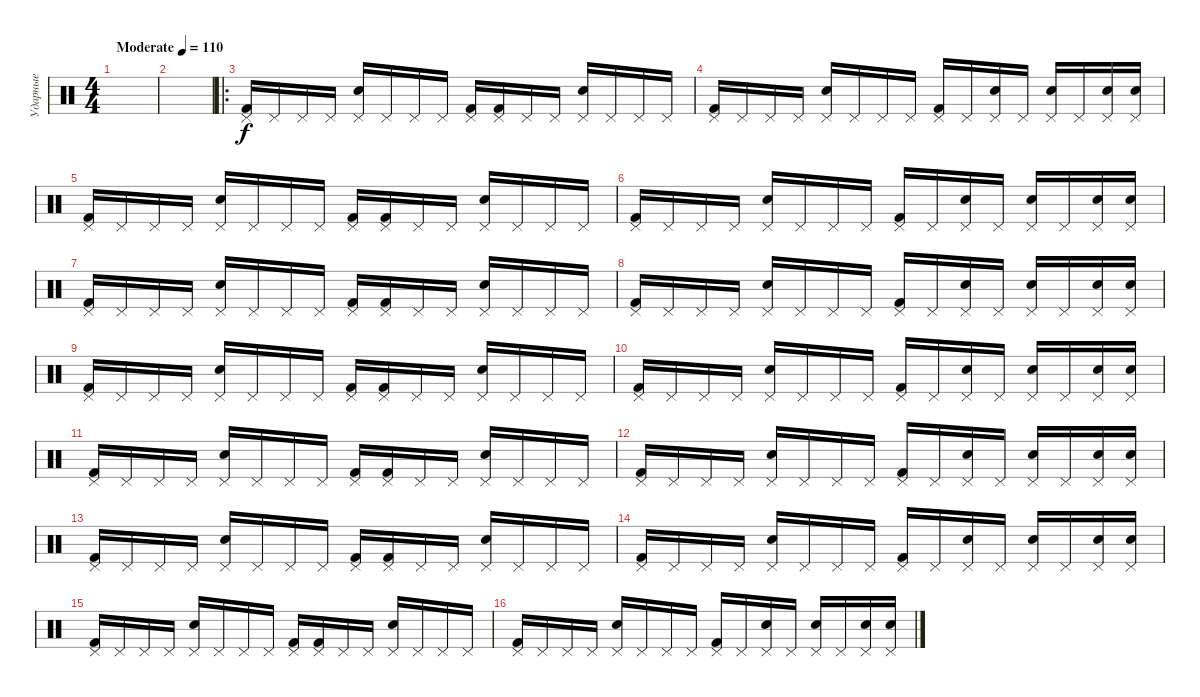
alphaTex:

\track ("Ударные" "Ударные") {instrument percussion}
\staff {score}
\articulation defaults
\ts (4 4)
\tempo (110 "Moderate")
\clef neutral
\ks c
|
|
\ro
("Pedal Hi-Hat (hit)" "Kick (hit) 2").16 "Pedal Hi-Hat (hit)".16 "Pedal Hi-Hat (hit)".16 "Pedal Hi-Hat (hit)".16 ("Pedal Hi-Hat (hit)" "Electric Snare (hit)").16 "Pedal Hi-Hat (hit)".16 "Pedal Hi-Hat (hit)".16 "Pedal Hi-Hat (hit)".16 ("Pedal Hi-Hat (hit)" "Kick (hit) 2").16 ("Pedal Hi-Hat (hit)" "Kick (hit) 2").16 "Pedal Hi-Hat (hit)".16 "Pedal Hi-Hat (hit)".16 ("Pedal Hi-Hat (hit)" "Electric Snare (hit)").16 "Pedal Hi-Hat (hit)".16 "Pedal Hi-Hat (hit)".16 "Pedal Hi-Hat (hit)".16 |
("Pedal Hi-Hat (hit)" "Kick (hit) 2").16 "Pedal Hi-Hat (hit)".16 "Pedal Hi-Hat (hit)".16 "Pedal Hi-Hat (hit)".16 ("Pedal Hi-Hat (hit)" "Electric Snare (hit)").16 "Pedal Hi-Hat (hit)".16 "Pedal Hi-Hat (hit)".16 "Pedal Hi-Hat (hit)".16 ("Pedal Hi-Hat (hit)" "Kick (hit) 2").16 "Pedal Hi-Hat (hit)".16 ("Pedal Hi-Hat (hit)" "Electric Snare (hit)").16 "Pedal Hi-Hat (hit)".16 ("Pedal Hi-Hat (hit)" "Electric Snare (hit)").16 "Pedal Hi-Hat (hit)".16 ("Pedal Hi-Hat (hit)" "Electric Snare (hit)").16 ("Pedal Hi-Hat (hit)" "Electric Snare (hit)").16 |
("Pedal Hi-Hat (hit)" "Kick (hit) 2").16 "Pedal Hi-Hat (hit)".16 "Pedal Hi-Hat (hit)".16 "Pedal Hi-Hat (hit)".16 ("Pedal Hi-Hat (hit)" "Electric Snare (hit)").16 "Pedal Hi-Hat (hit)".16 "Pedal Hi-Hat (hit)".16 "Pedal Hi-Hat (hit)".16 ("Pedal Hi-Hat (hit)" "Kick (hit) 2").16 ("Pedal Hi-Hat (hit)" "Kick (hit) 2").16 "Pedal Hi-Hat (hit)".16 "Pedal Hi-Hat (hit)".16 ("Pedal Hi-Hat (hit)" "Electric Snare (hit)").16 "Pedal Hi-Hat (hit)".16 "Pedal Hi-Hat (hit)".16 "Pedal Hi-Hat (hit)".16 |
("Pedal Hi-Hat (hit)" "Kick (hit) 2").16 "Pedal Hi-Hat (hit)".16 "Pedal Hi-Hat (hit)".16 "Pedal Hi-Hat (hit)".16 ("Pedal Hi-Hat (hit)" "Electric Snare (hit)").16 "Pedal Hi-Hat (hit)".16 "Pedal Hi-Hat (hit)".16 "Pedal Hi-Hat (hit)".16 ("Pedal Hi-Hat (hit)" "Kick (hit) 2").16 "Pedal Hi-Hat (hit)".16 ("Pedal Hi-Hat (hit)" "Electric Snare (hit)").16 "Pedal Hi-Hat (hit)".16 ("Pedal Hi-Hat (hit)" "Electric Snare (hit)").16 "Pedal Hi-Hat (hit)".16 ("Pedal Hi-Hat (hit)" "Electric Snare (hit)").16 ("Pedal Hi-Hat (hit)" "Electric Snare (hit)").16 |
("Pedal Hi-Hat (hit)" "Kick (hit) 2").16 "Pedal Hi-Hat (hit)".16 "Pedal Hi-Hat (hit)".16 "Pedal Hi-Hat (hit)".16 ("Pedal Hi-Hat (hit)" "Electric Snare (hit)").16 "Pedal Hi-Hat (hit)".16 "Pedal Hi-Hat (hit)".16 "Pedal Hi-Hat (hit)".16 ("Pedal Hi-Hat (hit)" "Kick (hit) 2").16 ("Pedal Hi-Hat (hit)" "Kick (hit) 2").16 "Pedal Hi-Hat (hit)".16 "Pedal Hi-Hat (hit)".16 ("Pedal Hi-Hat (hit)" "Electric Snare (hit)").16 "Pedal Hi-Hat (hit)".16 "Pedal Hi-Hat (hit)".16 "Pedal Hi-Hat (hit)".16 |
("Pedal Hi-Hat (hit)" "Kick (hit) 2").16 "Pedal Hi-Hat (hit)".16 "Pedal Hi-Hat (hit)".16 "Pedal Hi-Hat (hit)".16 ("Pedal Hi-Hat (hit)" "Electric Snare (hit)").16 "Pedal Hi-Hat (hit)".16 "Pedal Hi-Hat (hit)".16 "Pedal Hi-Hat (hit)".16 ("Pedal Hi-Hat (hit)" "Kick (hit) 2").16 "Pedal Hi-Hat (hit)".16 ("Pedal Hi-Hat (hit)" "Electric Snare (hit)").16 "Pedal Hi-Hat (hit)".16 ("Pedal Hi-Hat (hit)" "Electric Snare (hit)").16 "Pedal Hi-Hat (hit)".16 ("Pedal Hi-Hat (hit)" "Electric Snare (hit)").16 ("Pedal Hi-Hat (hit)" "Electric Snare (hit)").16 |
("Pedal Hi-Hat (hit)" "Kick (hit) 2").16 "Pedal Hi-Hat (hit)".16 "Pedal Hi-Hat (hit)".16 "Pedal Hi-Hat (hit)".16 ("Pedal Hi-Hat (hit)" "Electric Snare (hit)").16 "Pedal Hi-Hat (hit)".16 "Pedal Hi-Hat (hit)".16 "Pedal Hi-Hat (hit)".16 ("Pedal Hi-Hat (hit)" "Kick (hit) 2").16 ("Pedal Hi-Hat (hit)" "Kick (hit) 2").16 "Pedal Hi-Hat (hit)".16 "Pedal Hi-Hat (hit)".16 ("Pedal Hi-Hat (hit)" "Electric Snare (hit)").16 "Pedal Hi-Hat (hit)".16 "Pedal Hi-Hat (hit)".16 "Pedal Hi-Hat (hit)".16 |
("Pedal Hi-Hat (hit)" "Kick (hit) 2").16 "Pedal Hi-Hat (hit)".16 "Pedal Hi-Hat (hit)".16 "Pedal Hi-Hat (hit)".16 ("Pedal Hi-Hat (hit)" "Electric Snare (hit)").16 "Pedal Hi-Hat (hit)".16 "Pedal Hi-Hat (hit)".16 "Pedal Hi-Hat (hit)".16 ("Pedal Hi-Hat (hit)" "Kick (hit) 2").16 "Pedal Hi-Hat (hit)".16 ("Pedal Hi-Hat (hit)" "Electric Snare (hit)").16 "Pedal Hi-Hat (hit)".16 ("Pedal Hi-Hat (hit)" "Electric Snare (hit)").16 "Pedal Hi-Hat (hit)".16 ("Pedal Hi-Hat (hit)" "Electric Snare (hit)").16 ("Pedal Hi-Hat (hit)" "Electric Snare (hit)").16 |
("Pedal Hi-Hat (hit)" "Kick (hit) 2").16 "Pedal Hi-Hat (hit)".16 "Pedal Hi-Hat (hit)".16 "Pedal Hi-Hat (hit)".16 ("Pedal Hi-Hat (hit)" "Electric Snare (hit)").16 "Pedal Hi-Hat (hit)".16 "Pedal Hi-Hat (hit)".16 "Pedal Hi-Hat (hit)".16 ("Pedal Hi-Hat (hit)" "Kick (hit) 2").16 ("Pedal Hi-Hat (hit)" "Kick (hit) 2").16 "Pedal Hi-Hat (hit)".16 "Pedal Hi-Hat (hit)".16 ("Pedal Hi-Hat (hit)" "Electric Snare (hit)").16 "Pedal Hi-Hat (hit)".16 "Pedal Hi-Hat (hit)".16 "Pedal Hi-Hat (hit)".16 |
("Pedal Hi-Hat (hit)" "Kick (hit) 2").16 "Pedal Hi-Hat (hit)".16 "Pedal Hi-Hat (hit)".16 "Pedal Hi-Hat (hit)".16 ("Pedal Hi-Hat (hit)" "Electric Snare (hit)").16 "Pedal Hi-Hat (hit)".16 "Pedal Hi-Hat (hit)".16 "Pedal Hi-Hat (hit)".16 ("Pedal Hi-Hat (hit)" "Kick (hit) 2").16 "Pedal Hi-Hat (hit)".16 ("Pedal Hi-Hat (hit)" "Electric Snare (hit)").16 "Pedal Hi-Hat (hit)".16 ("Pedal Hi-Hat (hit)" "Electric Snare (hit)").16 "Pedal Hi-Hat (hit)".16 ("Pedal Hi-Hat (hit)" "Electric Snare (hit)").16 ("Pedal Hi-Hat (hit)" "Electric Snare (hit)").16 |
("Pedal Hi-Hat (hit)" "Kick (hit) 2").16 "Pedal Hi-Hat (hit)".16 "Pedal Hi-Hat (hit)".16 "Pedal Hi-Hat (hit)".16 ("Pedal Hi-Hat (hit)" "Electric Snare (hit)").16 "Pedal Hi-Hat (hit)".16 "Pedal Hi-Hat (hit)".16 "Pedal Hi-Hat (hit)".16 ("Pedal Hi-Hat (hit)" "Kick (hit) 2").16 ("Pedal Hi-Hat (hit)" "Kick (hit) 2").16 "Pedal Hi-Hat (hit)".16 "Pedal Hi-Hat (hit)".16 ("Pedal Hi-Hat (hit)" "Electric Snare (hit)").16 "Pedal Hi-Hat (hit)".16 "Pedal Hi-Hat (hit)".16 "Pedal Hi-Hat (hit)".16 |
("Pedal Hi-Hat (hit)" "Kick (hit) 2").16 "Pedal Hi-Hat (hit)".16 "Pedal Hi-Hat (hit)".16 "Pedal Hi-Hat (hit)".16 ("Pedal Hi-Hat (hit)" "Electric Snare (hit)").16 "Pedal Hi-Hat (hit)".16 "Pedal Hi-Hat (hit)".16 "Pedal Hi-Hat (hit)".16 ("Pedal Hi-Hat (hit)" "Kick (hit) 2").16 "Pedal Hi-Hat (hit)".16 ("Pedal Hi-Hat (hit)" "Electric Snare (hit)").16 "Pedal Hi-Hat (hit)".16 ("Pedal Hi-Hat (hit)" "Electric Snare (hit)").16 "Pedal Hi-Hat (hit)".16 ("Pedal Hi-Hat (hit)" "Electric Snare (hit)").16 ("Pedal Hi-Hat (hit)" "Electric Snare (hit)").16 |
("Pedal Hi-Hat (hit)" "Kick (hit) 2").16 "Pedal Hi-Hat (hit)".16 "Pedal Hi-Hat (hit)".16 "Pedal Hi-Hat (hit)".16 ("Pedal Hi-Hat (hit)" "Electric Snare (hit)").16 "Pedal Hi-Hat (hit)".16 "Pedal Hi-Hat (hit)".16 "Pedal Hi-Hat (hit)".16 ("Pedal Hi-Hat (hit)" "Kick (hit) 2").16 ("Pedal Hi-Hat (hit)" "Kick (hit) 2").16 "Pedal Hi-Hat (hit)".16 "Pedal Hi-Hat (hit)".16 ("Pedal Hi-Hat (hit)" "Electric Snare (hit)").16 "Pedal Hi-Hat (hit)".16 "Pedal Hi-Hat (hit)".16 "Pedal Hi-Hat (hit)".16 |
("Pedal Hi-Hat (hit)" "Kick (hit) 2").16 "Pedal Hi-Hat (hit)".16 "Pedal Hi-Hat (hit)".16 "Pedal Hi-Hat (hit)".16 ("Pedal Hi-Hat (hit)" "Electric Snare (hit)").16 "Pedal Hi-Hat (hit)".16 "Pedal Hi-Hat (hit)".16 "Pedal Hi-Hat (hit)".16 ("Pedal Hi-Hat (hit)" "Kick (hit) 2").16 "Pedal Hi-Hat (hit)".16 ("Pedal Hi-Hat (hit)" "Electric Snare (hit)").16 "Pedal Hi-Hat (hit)".16 ("Pedal Hi-Hat (hit)" "Electric Snare (hit)").16 "Pedal Hi-Hat (hit)".16 ("Pedal Hi-Hat (hit)" "Electric Snare (hit)").16 ("Pedal Hi-Hat (hit)" "Electric Snare (hit)").16
